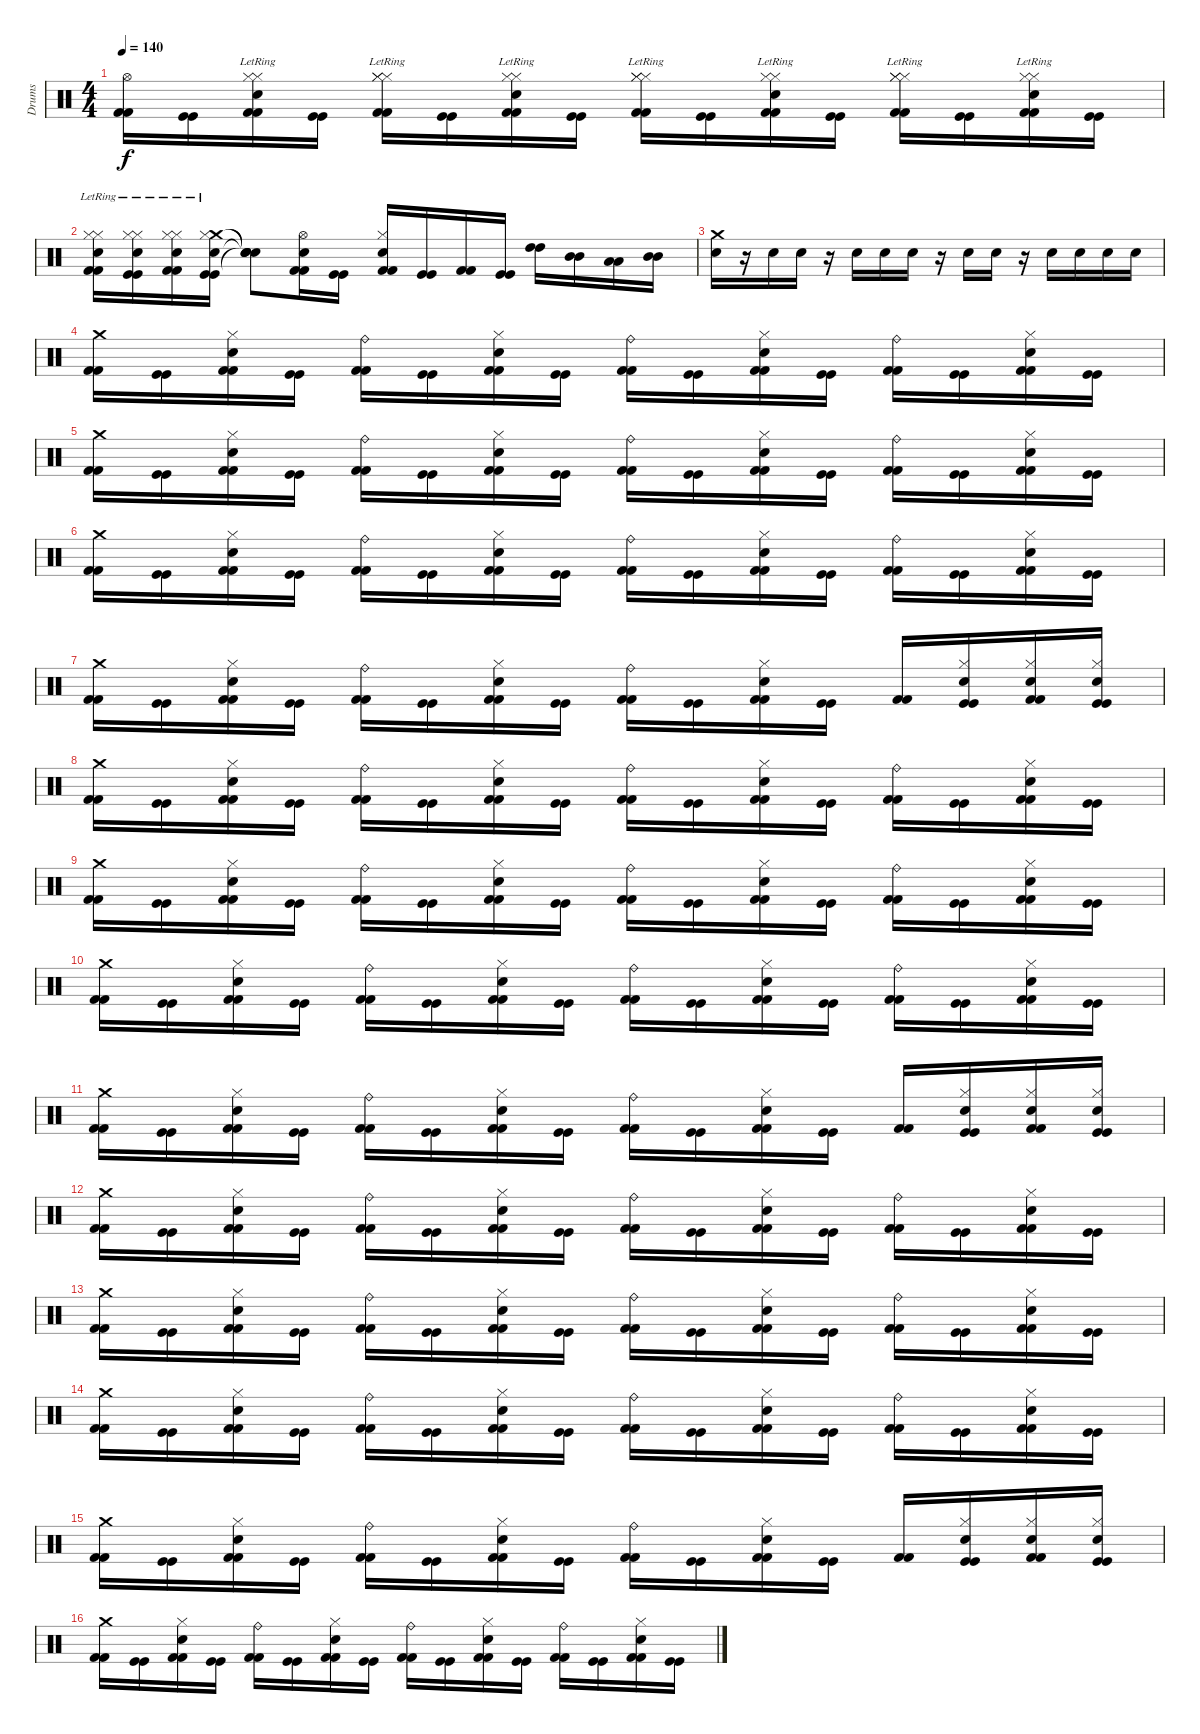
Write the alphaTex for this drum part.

\track ("Drums" "Drums") {instrument percussion}
\staff {score}
\articulation defaults
\ts (4 4)
\tempo 140
\clef neutral
\ks c
("Hi-Hat (open)" "Kick (hit) 2" "Kick (hit) 2").16{dy f} ("Kick (hit)" "Kick (hit)").16 ("Hi-Hat (closed)"{lr} "Hi-Hat (closed)"{lr} "Snare (hit) 2" "Kick (hit) 2" "Kick (hit) 2").16 ("Kick (hit)" "Kick (hit)").16 ("Hi-Hat (closed)"{lr} "Hi-Hat (closed)"{lr} "Hi-Hat (closed)"{lr} "Kick (hit) 2" "Kick (hit) 2").16 ("Kick (hit)" "Kick (hit)").16 ("Hi-Hat (closed)"{lr} "Hi-Hat (closed)"{lr} "Snare (hit) 2" "Kick (hit) 2" "Kick (hit) 2").16 ("Kick (hit)" "Kick (hit)").16 ("Hi-Hat (closed)"{lr} "Hi-Hat (closed)"{lr} "Hi-Hat (closed)"{lr} "Kick (hit) 2" "Kick (hit) 2").16 ("Kick (hit)" "Kick (hit)").16 ("Hi-Hat (closed)"{lr} "Hi-Hat (closed)"{lr} "Snare (hit) 2" "Kick (hit) 2" "Kick (hit) 2").16 ("Kick (hit)" "Kick (hit)").16 ("Hi-Hat (closed)"{lr} "Hi-Hat (closed)"{lr} "Hi-Hat (closed)"{lr} "Kick (hit) 2" "Kick (hit) 2").16 ("Kick (hit)" "Kick (hit)").16 ("Hi-Hat (closed)"{lr} "Hi-Hat (closed)"{lr} "Snare (hit) 2" "Kick (hit) 2" "Kick (hit) 2").16 ("Kick (hit)" "Kick (hit)").16 |
("Hi-Hat (closed)"{lr} "Hi-Hat (closed)"{lr} "Snare (hit) 2" "Kick (hit) 2" "Kick (hit) 2").16 ("Hi-Hat (closed)"{lr} "Hi-Hat (closed)"{lr} "Snare (hit) 2" "Kick (hit)" "Kick (hit)").16 ("Hi-Hat (closed)"{lr} "Hi-Hat (closed)"{lr} "Snare (hit) 2" "Kick (hit) 2" "Kick (hit) 2").16 ("Crash medium (hit)"{lr} "Hi-Hat (closed)"{lr} "Snare (hit) 2" "Kick (hit)" "Kick (hit)").16 ("Snare (hit)"{t} "Snare (hit)"{t} "Snare (hit)"{t} "Snare (hit)"{t}).8 ("Hi-Hat (open)" "Snare (hit) 2" "Kick (hit) 2" "Kick (hit) 2").16 ("Kick (hit)" "Kick (hit)").16 ("Hi-Hat (closed)" "Snare (hit) 2" "Kick (hit) 2" "Kick (hit) 2").16 ("Kick (hit)" "Kick (hit)").16 ("Kick (hit) 2" "Kick (hit) 2").16 ("Kick (hit)" "Kick (hit)").16 ("High Tom (hit)" "High Tom (hit)").16 ("Mid Tom (hit)" "Mid Tom (hit)").16 ("Low Tom (hit)" "Low Tom (hit)").16 ("Mid Tom (hit)" "Mid Tom (hit)").16 |
("Crash medium (hit)" "Snare (hit) 2").16 r.16 "Snare (hit) 2".16 "Snare (hit) 2".16 r.16 "Snare (hit) 2".16 "Snare (hit) 2".16 "Snare (hit) 2".16 r.16 "Snare (hit) 2".16 "Snare (hit) 2".16 r.16 "Snare (hit) 2".16 "Snare (hit) 2".16 "Snare (hit) 2".16 "Snare (hit) 2".16 |
("Crash medium (hit)" "Kick (hit) 2" "Kick (hit) 2").16 ("Kick (hit)" "Kick (hit)").16 ("Hi-Hat (closed)" "Snare (hit) 2" "Kick (hit) 2" "Kick (hit) 2").16 ("Kick (hit)" "Kick (hit)").16 ("Ride (bell)" "Kick (hit) 2" "Kick (hit) 2").16 ("Kick (hit)" "Kick (hit)").16 ("Hi-Hat (closed)" "Snare (hit) 2" "Kick (hit) 2" "Kick (hit) 2").16 ("Kick (hit)" "Kick (hit)").16 ("Ride (bell)" "Kick (hit) 2" "Kick (hit) 2").16 ("Kick (hit)" "Kick (hit)").16 ("Hi-Hat (closed)" "Snare (hit) 2" "Kick (hit) 2" "Kick (hit) 2").16 ("Kick (hit)" "Kick (hit)").16 ("Ride (bell)" "Kick (hit) 2" "Kick (hit) 2").16 ("Kick (hit)" "Kick (hit)").16 ("Hi-Hat (closed)" "Snare (hit) 2" "Kick (hit) 2" "Kick (hit) 2").16 ("Kick (hit)" "Kick (hit)").16 |
("Crash medium (hit)" "Kick (hit) 2" "Kick (hit) 2").16 ("Kick (hit)" "Kick (hit)").16 ("Hi-Hat (closed)" "Snare (hit) 2" "Kick (hit) 2" "Kick (hit) 2").16 ("Kick (hit)" "Kick (hit)").16 ("Ride (bell)" "Kick (hit) 2" "Kick (hit) 2").16 ("Kick (hit)" "Kick (hit)").16 ("Hi-Hat (closed)" "Snare (hit) 2" "Kick (hit) 2" "Kick (hit) 2").16 ("Kick (hit)" "Kick (hit)").16 ("Ride (bell)" "Kick (hit) 2" "Kick (hit) 2").16 ("Kick (hit)" "Kick (hit)").16 ("Hi-Hat (closed)" "Snare (hit) 2" "Kick (hit) 2" "Kick (hit) 2").16 ("Kick (hit)" "Kick (hit)").16 ("Ride (bell)" "Kick (hit) 2" "Kick (hit) 2").16 ("Kick (hit)" "Kick (hit)").16 ("Hi-Hat (closed)" "Snare (hit) 2" "Kick (hit) 2" "Kick (hit) 2").16 ("Kick (hit)" "Kick (hit)").16 |
("Crash medium (hit)" "Kick (hit) 2" "Kick (hit) 2").16 ("Kick (hit)" "Kick (hit)").16 ("Hi-Hat (closed)" "Snare (hit) 2" "Kick (hit) 2" "Kick (hit) 2").16 ("Kick (hit)" "Kick (hit)").16 ("Ride (bell)" "Kick (hit) 2" "Kick (hit) 2").16 ("Kick (hit)" "Kick (hit)").16 ("Hi-Hat (closed)" "Snare (hit) 2" "Kick (hit) 2" "Kick (hit) 2").16 ("Kick (hit)" "Kick (hit)").16 ("Ride (bell)" "Kick (hit) 2" "Kick (hit) 2").16 ("Kick (hit)" "Kick (hit)").16 ("Hi-Hat (closed)" "Snare (hit) 2" "Kick (hit) 2" "Kick (hit) 2").16 ("Kick (hit)" "Kick (hit)").16 ("Ride (bell)" "Kick (hit) 2" "Kick (hit) 2").16 ("Kick (hit)" "Kick (hit)").16 ("Hi-Hat (closed)" "Snare (hit) 2" "Kick (hit) 2" "Kick (hit) 2").16 ("Kick (hit)" "Kick (hit)").16 |
("Crash medium (hit)" "Kick (hit) 2" "Kick (hit) 2").16 ("Kick (hit)" "Kick (hit)").16 ("Hi-Hat (closed)" "Snare (hit) 2" "Kick (hit) 2" "Kick (hit) 2").16 ("Kick (hit)" "Kick (hit)").16 ("Ride (bell)" "Kick (hit) 2" "Kick (hit) 2").16 ("Kick (hit)" "Kick (hit)").16 ("Hi-Hat (closed)" "Snare (hit) 2" "Kick (hit) 2" "Kick (hit) 2").16 ("Kick (hit)" "Kick (hit)").16 ("Ride (bell)" "Kick (hit) 2" "Kick (hit) 2").16 ("Kick (hit)" "Kick (hit)").16 ("Hi-Hat (closed)" "Snare (hit) 2" "Kick (hit) 2" "Kick (hit) 2").16 ("Kick (hit)" "Kick (hit)").16 ("Kick (hit) 2" "Kick (hit) 2").16 ("Hi-Hat (closed)" "Snare (hit) 2" "Kick (hit)" "Kick (hit)").16 ("Hi-Hat (closed)" "Snare (hit) 2" "Kick (hit) 2" "Kick (hit) 2").16 ("Hi-Hat (closed)" "Snare (hit) 2" "Kick (hit)" "Kick (hit)").16 |
("Crash medium (hit)" "Kick (hit) 2" "Kick (hit) 2").16 ("Kick (hit)" "Kick (hit)").16 ("Hi-Hat (closed)" "Snare (hit) 2" "Kick (hit) 2" "Kick (hit) 2").16 ("Kick (hit)" "Kick (hit)").16 ("Ride (bell)" "Kick (hit) 2" "Kick (hit) 2").16 ("Kick (hit)" "Kick (hit)").16 ("Hi-Hat (closed)" "Snare (hit) 2" "Kick (hit) 2" "Kick (hit) 2").16 ("Kick (hit)" "Kick (hit)").16 ("Ride (bell)" "Kick (hit) 2" "Kick (hit) 2").16 ("Kick (hit)" "Kick (hit)").16 ("Hi-Hat (closed)" "Snare (hit) 2" "Kick (hit) 2" "Kick (hit) 2").16 ("Kick (hit)" "Kick (hit)").16 ("Ride (bell)" "Kick (hit) 2" "Kick (hit) 2").16 ("Kick (hit)" "Kick (hit)").16 ("Hi-Hat (closed)" "Snare (hit) 2" "Kick (hit) 2" "Kick (hit) 2").16 ("Kick (hit)" "Kick (hit)").16 |
("Crash medium (hit)" "Kick (hit) 2" "Kick (hit) 2").16 ("Kick (hit)" "Kick (hit)").16 ("Hi-Hat (closed)" "Snare (hit) 2" "Kick (hit) 2" "Kick (hit) 2").16 ("Kick (hit)" "Kick (hit)").16 ("Ride (bell)" "Kick (hit) 2" "Kick (hit) 2").16 ("Kick (hit)" "Kick (hit)").16 ("Hi-Hat (closed)" "Snare (hit) 2" "Kick (hit) 2" "Kick (hit) 2").16 ("Kick (hit)" "Kick (hit)").16 ("Ride (bell)" "Kick (hit) 2" "Kick (hit) 2").16 ("Kick (hit)" "Kick (hit)").16 ("Hi-Hat (closed)" "Snare (hit) 2" "Kick (hit) 2" "Kick (hit) 2").16 ("Kick (hit)" "Kick (hit)").16 ("Ride (bell)" "Kick (hit) 2" "Kick (hit) 2").16 ("Kick (hit)" "Kick (hit)").16 ("Hi-Hat (closed)" "Snare (hit) 2" "Kick (hit) 2" "Kick (hit) 2").16 ("Kick (hit)" "Kick (hit)").16 |
("Crash medium (hit)" "Kick (hit) 2" "Kick (hit) 2").16 ("Kick (hit)" "Kick (hit)").16 ("Hi-Hat (closed)" "Snare (hit) 2" "Kick (hit) 2" "Kick (hit) 2").16 ("Kick (hit)" "Kick (hit)").16 ("Ride (bell)" "Kick (hit) 2" "Kick (hit) 2").16 ("Kick (hit)" "Kick (hit)").16 ("Hi-Hat (closed)" "Snare (hit) 2" "Kick (hit) 2" "Kick (hit) 2").16 ("Kick (hit)" "Kick (hit)").16 ("Ride (bell)" "Kick (hit) 2" "Kick (hit) 2").16 ("Kick (hit)" "Kick (hit)").16 ("Hi-Hat (closed)" "Snare (hit) 2" "Kick (hit) 2" "Kick (hit) 2").16 ("Kick (hit)" "Kick (hit)").16 ("Ride (bell)" "Kick (hit) 2" "Kick (hit) 2").16 ("Kick (hit)" "Kick (hit)").16 ("Hi-Hat (closed)" "Snare (hit) 2" "Kick (hit) 2" "Kick (hit) 2").16 ("Kick (hit)" "Kick (hit)").16 |
("Crash medium (hit)" "Kick (hit) 2" "Kick (hit) 2").16 ("Kick (hit)" "Kick (hit)").16 ("Hi-Hat (closed)" "Snare (hit) 2" "Kick (hit) 2" "Kick (hit) 2").16 ("Kick (hit)" "Kick (hit)").16 ("Ride (bell)" "Kick (hit) 2" "Kick (hit) 2").16 ("Kick (hit)" "Kick (hit)").16 ("Hi-Hat (closed)" "Snare (hit) 2" "Kick (hit) 2" "Kick (hit) 2").16 ("Kick (hit)" "Kick (hit)").16 ("Ride (bell)" "Kick (hit) 2" "Kick (hit) 2").16 ("Kick (hit)" "Kick (hit)").16 ("Hi-Hat (closed)" "Snare (hit) 2" "Kick (hit) 2" "Kick (hit) 2").16 ("Kick (hit)" "Kick (hit)").16 ("Kick (hit) 2" "Kick (hit) 2").16 ("Hi-Hat (closed)" "Snare (hit) 2" "Kick (hit)" "Kick (hit)").16 ("Hi-Hat (closed)" "Snare (hit) 2" "Kick (hit) 2" "Kick (hit) 2").16 ("Hi-Hat (closed)" "Snare (hit) 2" "Kick (hit)" "Kick (hit)").16 |
("Crash medium (hit)" "Kick (hit) 2" "Kick (hit) 2").16 ("Kick (hit)" "Kick (hit)").16 ("Hi-Hat (closed)" "Snare (hit) 2" "Kick (hit) 2" "Kick (hit) 2").16 ("Kick (hit)" "Kick (hit)").16 ("Ride (bell)" "Kick (hit) 2" "Kick (hit) 2").16 ("Kick (hit)" "Kick (hit)").16 ("Hi-Hat (closed)" "Snare (hit) 2" "Kick (hit) 2" "Kick (hit) 2").16 ("Kick (hit)" "Kick (hit)").16 ("Ride (bell)" "Kick (hit) 2" "Kick (hit) 2").16 ("Kick (hit)" "Kick (hit)").16 ("Hi-Hat (closed)" "Snare (hit) 2" "Kick (hit) 2" "Kick (hit) 2").16 ("Kick (hit)" "Kick (hit)").16 ("Ride (bell)" "Kick (hit) 2" "Kick (hit) 2").16 ("Kick (hit)" "Kick (hit)").16 ("Hi-Hat (closed)" "Snare (hit) 2" "Kick (hit) 2" "Kick (hit) 2").16 ("Kick (hit)" "Kick (hit)").16 |
("Crash medium (hit)" "Kick (hit) 2" "Kick (hit) 2").16 ("Kick (hit)" "Kick (hit)").16 ("Hi-Hat (closed)" "Snare (hit) 2" "Kick (hit) 2" "Kick (hit) 2").16 ("Kick (hit)" "Kick (hit)").16 ("Ride (bell)" "Kick (hit) 2" "Kick (hit) 2").16 ("Kick (hit)" "Kick (hit)").16 ("Hi-Hat (closed)" "Snare (hit) 2" "Kick (hit) 2" "Kick (hit) 2").16 ("Kick (hit)" "Kick (hit)").16 ("Ride (bell)" "Kick (hit) 2" "Kick (hit) 2").16 ("Kick (hit)" "Kick (hit)").16 ("Hi-Hat (closed)" "Snare (hit) 2" "Kick (hit) 2" "Kick (hit) 2").16 ("Kick (hit)" "Kick (hit)").16 ("Ride (bell)" "Kick (hit) 2" "Kick (hit) 2").16 ("Kick (hit)" "Kick (hit)").16 ("Hi-Hat (closed)" "Snare (hit) 2" "Kick (hit) 2" "Kick (hit) 2").16 ("Kick (hit)" "Kick (hit)").16 |
("Crash medium (hit)" "Kick (hit) 2" "Kick (hit) 2").16 ("Kick (hit)" "Kick (hit)").16 ("Hi-Hat (closed)" "Snare (hit) 2" "Kick (hit) 2" "Kick (hit) 2").16 ("Kick (hit)" "Kick (hit)").16 ("Ride (bell)" "Kick (hit) 2" "Kick (hit) 2").16 ("Kick (hit)" "Kick (hit)").16 ("Hi-Hat (closed)" "Snare (hit) 2" "Kick (hit) 2" "Kick (hit) 2").16 ("Kick (hit)" "Kick (hit)").16 ("Ride (bell)" "Kick (hit) 2" "Kick (hit) 2").16 ("Kick (hit)" "Kick (hit)").16 ("Hi-Hat (closed)" "Snare (hit) 2" "Kick (hit) 2" "Kick (hit) 2").16 ("Kick (hit)" "Kick (hit)").16 ("Ride (bell)" "Kick (hit) 2" "Kick (hit) 2").16 ("Kick (hit)" "Kick (hit)").16 ("Hi-Hat (closed)" "Snare (hit) 2" "Kick (hit) 2" "Kick (hit) 2").16 ("Kick (hit)" "Kick (hit)").16 |
("Crash medium (hit)" "Kick (hit) 2" "Kick (hit) 2").16 ("Kick (hit)" "Kick (hit)").16 ("Hi-Hat (closed)" "Snare (hit) 2" "Kick (hit) 2" "Kick (hit) 2").16 ("Kick (hit)" "Kick (hit)").16 ("Ride (bell)" "Kick (hit) 2" "Kick (hit) 2").16 ("Kick (hit)" "Kick (hit)").16 ("Hi-Hat (closed)" "Snare (hit) 2" "Kick (hit) 2" "Kick (hit) 2").16 ("Kick (hit)" "Kick (hit)").16 ("Ride (bell)" "Kick (hit) 2" "Kick (hit) 2").16 ("Kick (hit)" "Kick (hit)").16 ("Hi-Hat (closed)" "Snare (hit) 2" "Kick (hit) 2" "Kick (hit) 2").16 ("Kick (hit)" "Kick (hit)").16 ("Kick (hit) 2" "Kick (hit) 2").16 ("Hi-Hat (closed)" "Snare (hit) 2" "Kick (hit)" "Kick (hit)").16 ("Hi-Hat (closed)" "Snare (hit) 2" "Kick (hit) 2" "Kick (hit) 2").16 ("Hi-Hat (closed)" "Snare (hit) 2" "Kick (hit)" "Kick (hit)").16 |
("Crash medium (hit)" "Kick (hit) 2" "Kick (hit) 2").16 ("Kick (hit)" "Kick (hit)").16 ("Hi-Hat (closed)" "Snare (hit) 2" "Kick (hit) 2" "Kick (hit) 2").16 ("Kick (hit)" "Kick (hit)").16 ("Ride (bell)" "Kick (hit) 2" "Kick (hit) 2").16 ("Kick (hit)" "Kick (hit)").16 ("Hi-Hat (closed)" "Snare (hit) 2" "Kick (hit) 2" "Kick (hit) 2").16 ("Kick (hit)" "Kick (hit)").16 ("Ride (bell)" "Kick (hit) 2" "Kick (hit) 2").16 ("Kick (hit)" "Kick (hit)").16 ("Hi-Hat (closed)" "Snare (hit) 2" "Kick (hit) 2" "Kick (hit) 2").16 ("Kick (hit)" "Kick (hit)").16 ("Ride (bell)" "Kick (hit) 2" "Kick (hit) 2").16 ("Kick (hit)" "Kick (hit)").16 ("Hi-Hat (closed)" "Snare (hit) 2" "Kick (hit) 2" "Kick (hit) 2").16 ("Kick (hit)" "Kick (hit)").16
